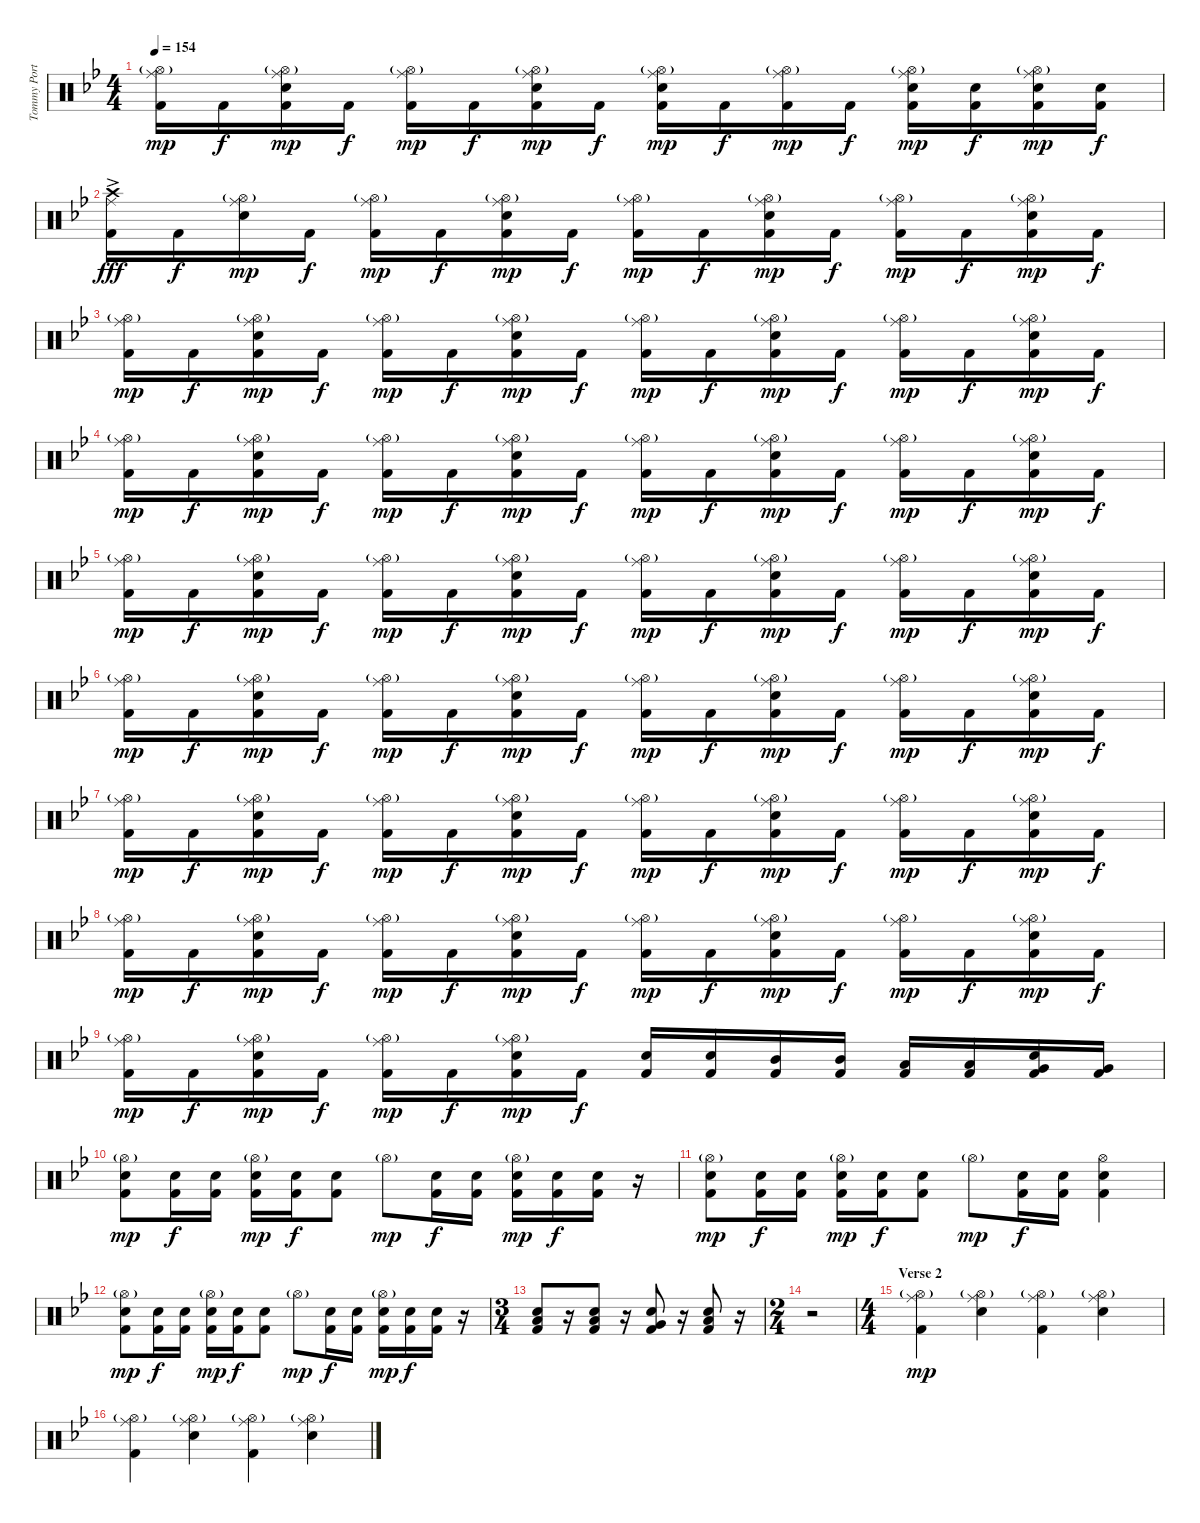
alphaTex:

\track ("Tommy Portimo" "Tommy Port") {instrument percussion}
\staff {score}
\articulation defaults
\ts (4 4)
\tempo 154
\clef neutral
\ks gminor
("Hi-Hat (open)"{g} "Ride (middle)" "Kick (hit) 2").16{dy mp} "Kick (hit) 2".16{dy f} ("Hi-Hat (open)"{g} "Ride (middle)" "Electric Snare (hit)" "Kick (hit) 2").16{dy mp} "Kick (hit) 2".16{dy f} ("Hi-Hat (open)"{g} "Ride (middle)" "Kick (hit) 2").16{dy mp} "Kick (hit) 2".16{dy f} ("Hi-Hat (open)"{g} "Ride (middle)" "Electric Snare (hit)" "Kick (hit) 2").16{dy mp} "Kick (hit) 2".16{dy f} ("Hi-Hat (open)"{g} "Ride (middle)" "Electric Snare (hit)" "Kick (hit) 2").16{dy mp} "Kick (hit) 2".16{dy f} ("Hi-Hat (open)"{g} "Ride (middle)" "Kick (hit) 2").16{dy mp} "Kick (hit) 2".16{dy f} ("Hi-Hat (open)"{g} "Ride (middle)" "Electric Snare (hit)" "Kick (hit) 2").16{dy mp} ("Electric Snare (hit)" "Kick (hit) 2").16{dy f} ("Hi-Hat (open)"{g} "Ride (middle)" "Electric Snare (hit)" "Kick (hit) 2").16{dy mp} ("Electric Snare (hit)" "Kick (hit) 2").16{dy f} |
("Crash high (hit)"{ac} "Ride (middle)" "Kick (hit) 2").16{dy fff} "Kick (hit) 2".16{dy f} ("Hi-Hat (open)"{g} "Ride (middle)" "Electric Snare (hit)").16{dy mp} "Kick (hit) 2".16{dy f} ("Hi-Hat (open)"{g} "Ride (middle)" "Kick (hit) 2").16{dy mp} "Kick (hit) 2".16{dy f} ("Hi-Hat (open)"{g} "Ride (middle)" "Electric Snare (hit)" "Kick (hit) 2").16{dy mp} "Kick (hit) 2".16{dy f} ("Hi-Hat (open)"{g} "Ride (middle)" "Kick (hit) 2").16{dy mp} "Kick (hit) 2".16{dy f} ("Hi-Hat (open)"{g} "Ride (middle)" "Electric Snare (hit)" "Kick (hit) 2").16{dy mp} "Kick (hit) 2".16{dy f} ("Hi-Hat (open)"{g} "Ride (middle)" "Kick (hit) 2").16{dy mp} "Kick (hit) 2".16{dy f} ("Hi-Hat (open)"{g} "Ride (middle)" "Electric Snare (hit)" "Kick (hit) 2").16{dy mp} "Kick (hit) 2".16{dy f} |
("Hi-Hat (open)"{g} "Ride (middle)" "Kick (hit) 2").16{dy mp} "Kick (hit) 2".16{dy f} ("Hi-Hat (open)"{g} "Ride (middle)" "Electric Snare (hit)" "Kick (hit) 2").16{dy mp} "Kick (hit) 2".16{dy f} ("Hi-Hat (open)"{g} "Ride (middle)" "Kick (hit) 2").16{dy mp} "Kick (hit) 2".16{dy f} ("Hi-Hat (open)"{g} "Ride (middle)" "Electric Snare (hit)" "Kick (hit) 2").16{dy mp} "Kick (hit) 2".16{dy f} ("Hi-Hat (open)"{g} "Ride (middle)" "Kick (hit) 2").16{dy mp} "Kick (hit) 2".16{dy f} ("Hi-Hat (open)"{g} "Ride (middle)" "Electric Snare (hit)" "Kick (hit) 2").16{dy mp} "Kick (hit) 2".16{dy f} ("Hi-Hat (open)"{g} "Ride (middle)" "Kick (hit) 2").16{dy mp} "Kick (hit) 2".16{dy f} ("Hi-Hat (open)"{g} "Ride (middle)" "Electric Snare (hit)" "Kick (hit) 2").16{dy mp} "Kick (hit) 2".16{dy f} |
("Hi-Hat (open)"{g} "Ride (middle)" "Kick (hit) 2").16{dy mp} "Kick (hit) 2".16{dy f} ("Hi-Hat (open)"{g} "Ride (middle)" "Electric Snare (hit)" "Kick (hit) 2").16{dy mp} "Kick (hit) 2".16{dy f} ("Hi-Hat (open)"{g} "Ride (middle)" "Kick (hit) 2").16{dy mp} "Kick (hit) 2".16{dy f} ("Hi-Hat (open)"{g} "Ride (middle)" "Electric Snare (hit)" "Kick (hit) 2").16{dy mp} "Kick (hit) 2".16{dy f} ("Hi-Hat (open)"{g} "Ride (middle)" "Kick (hit) 2").16{dy mp} "Kick (hit) 2".16{dy f} ("Hi-Hat (open)"{g} "Ride (middle)" "Electric Snare (hit)" "Kick (hit) 2").16{dy mp} "Kick (hit) 2".16{dy f} ("Hi-Hat (open)"{g} "Ride (middle)" "Kick (hit) 2").16{dy mp} "Kick (hit) 2".16{dy f} ("Hi-Hat (open)"{g} "Ride (middle)" "Electric Snare (hit)" "Kick (hit) 2").16{dy mp} "Kick (hit) 2".16{dy f} |
("Hi-Hat (open)"{g} "Ride (middle)" "Kick (hit) 2").16{dy mp} "Kick (hit) 2".16{dy f} ("Hi-Hat (open)"{g} "Ride (middle)" "Electric Snare (hit)" "Kick (hit) 2").16{dy mp} "Kick (hit) 2".16{dy f} ("Hi-Hat (open)"{g} "Ride (middle)" "Kick (hit) 2").16{dy mp} "Kick (hit) 2".16{dy f} ("Hi-Hat (open)"{g} "Ride (middle)" "Electric Snare (hit)" "Kick (hit) 2").16{dy mp} "Kick (hit) 2".16{dy f} ("Hi-Hat (open)"{g} "Ride (middle)" "Kick (hit) 2").16{dy mp} "Kick (hit) 2".16{dy f} ("Hi-Hat (open)"{g} "Ride (middle)" "Electric Snare (hit)" "Kick (hit) 2").16{dy mp} "Kick (hit) 2".16{dy f} ("Hi-Hat (open)"{g} "Ride (middle)" "Kick (hit) 2").16{dy mp} "Kick (hit) 2".16{dy f} ("Hi-Hat (open)"{g} "Ride (middle)" "Electric Snare (hit)" "Kick (hit) 2").16{dy mp} "Kick (hit) 2".16{dy f} |
("Hi-Hat (open)"{g} "Ride (middle)" "Kick (hit) 2").16{dy mp} "Kick (hit) 2".16{dy f} ("Hi-Hat (open)"{g} "Ride (middle)" "Electric Snare (hit)" "Kick (hit) 2").16{dy mp} "Kick (hit) 2".16{dy f} ("Hi-Hat (open)"{g} "Ride (middle)" "Kick (hit) 2").16{dy mp} "Kick (hit) 2".16{dy f} ("Hi-Hat (open)"{g} "Ride (middle)" "Electric Snare (hit)" "Kick (hit) 2").16{dy mp} "Kick (hit) 2".16{dy f} ("Hi-Hat (open)"{g} "Ride (middle)" "Kick (hit) 2").16{dy mp} "Kick (hit) 2".16{dy f} ("Hi-Hat (open)"{g} "Ride (middle)" "Electric Snare (hit)" "Kick (hit) 2").16{dy mp} "Kick (hit) 2".16{dy f} ("Hi-Hat (open)"{g} "Ride (middle)" "Kick (hit) 2").16{dy mp} "Kick (hit) 2".16{dy f} ("Hi-Hat (open)"{g} "Ride (middle)" "Electric Snare (hit)" "Kick (hit) 2").16{dy mp} "Kick (hit) 2".16{dy f} |
("Hi-Hat (open)"{g} "Ride (middle)" "Kick (hit) 2").16{dy mp} "Kick (hit) 2".16{dy f} ("Hi-Hat (open)"{g} "Ride (middle)" "Electric Snare (hit)" "Kick (hit) 2").16{dy mp} "Kick (hit) 2".16{dy f} ("Hi-Hat (open)"{g} "Ride (middle)" "Kick (hit) 2").16{dy mp} "Kick (hit) 2".16{dy f} ("Hi-Hat (open)"{g} "Ride (middle)" "Electric Snare (hit)" "Kick (hit) 2").16{dy mp} "Kick (hit) 2".16{dy f} ("Hi-Hat (open)"{g} "Ride (middle)" "Kick (hit) 2").16{dy mp} "Kick (hit) 2".16{dy f} ("Hi-Hat (open)"{g} "Ride (middle)" "Electric Snare (hit)" "Kick (hit) 2").16{dy mp} "Kick (hit) 2".16{dy f} ("Hi-Hat (open)"{g} "Ride (middle)" "Kick (hit) 2").16{dy mp} "Kick (hit) 2".16{dy f} ("Hi-Hat (open)"{g} "Ride (middle)" "Electric Snare (hit)" "Kick (hit) 2").16{dy mp} "Kick (hit) 2".16{dy f} |
("Hi-Hat (open)"{g} "Ride (middle)" "Kick (hit) 2").16{dy mp} "Kick (hit) 2".16{dy f} ("Hi-Hat (open)"{g} "Ride (middle)" "Electric Snare (hit)" "Kick (hit) 2").16{dy mp} "Kick (hit) 2".16{dy f} ("Hi-Hat (open)"{g} "Ride (middle)" "Kick (hit) 2").16{dy mp} "Kick (hit) 2".16{dy f} ("Hi-Hat (open)"{g} "Ride (middle)" "Electric Snare (hit)" "Kick (hit) 2").16{dy mp} "Kick (hit) 2".16{dy f} ("Hi-Hat (open)"{g} "Ride (middle)" "Kick (hit) 2").16{dy mp} "Kick (hit) 2".16{dy f} ("Hi-Hat (open)"{g} "Ride (middle)" "Electric Snare (hit)" "Kick (hit) 2").16{dy mp} "Kick (hit) 2".16{dy f} ("Hi-Hat (open)"{g} "Ride (middle)" "Kick (hit) 2").16{dy mp} "Kick (hit) 2".16{dy f} ("Hi-Hat (open)"{g} "Ride (middle)" "Electric Snare (hit)" "Kick (hit) 2").16{dy mp} "Kick (hit) 2".16{dy f} |
("Hi-Hat (open)"{g} "Ride (middle)" "Kick (hit) 2").16{dy mp} "Kick (hit) 2".16{dy f} ("Hi-Hat (open)"{g} "Ride (middle)" "Electric Snare (hit)" "Kick (hit) 2").16{dy mp} "Kick (hit) 2".16{dy f} ("Hi-Hat (open)"{g} "Ride (middle)" "Kick (hit) 2").16{dy mp} "Kick (hit) 2".16{dy f} ("Hi-Hat (open)"{g} "Ride (middle)" "Electric Snare (hit)" "Kick (hit) 2").16{dy mp} "Kick (hit) 2".16{dy f} ("Electric Snare (hit)" "Kick (hit) 2").16 ("Electric Snare (hit)" "Kick (hit) 2").16 ("Mid Tom (hit)" "Kick (hit) 2").16 ("Mid Tom (hit)" "Kick (hit) 2").16 ("Low Tom (hit)" "Kick (hit) 2").16 ("Low Tom (hit)" "Kick (hit) 2").16 ("Very Low Tom (hit)" "Electric Snare (hit)" "Kick (hit) 2").16 ("Very Low Tom (hit)" "Kick (hit) 2").16 |
("Hi-Hat (open)"{g} "Electric Snare (hit)" "Kick (hit) 2").8{dy mp} ("Electric Snare (hit)" "Kick (hit) 2").16{dy f} ("Electric Snare (hit)" "Kick (hit) 2").16 ("Hi-Hat (open)"{g} "Electric Snare (hit)" "Kick (hit) 2").16{dy mp} ("Electric Snare (hit)" "Kick (hit) 2").16{dy f} ("Electric Snare (hit)" "Kick (hit) 2").8 "Hi-Hat (open)"{g}.8{dy mp} ("Electric Snare (hit)" "Kick (hit) 2").16{dy f} ("Electric Snare (hit)" "Kick (hit) 2").16 ("Hi-Hat (open)"{g} "Electric Snare (hit)" "Kick (hit) 2").16{dy mp} ("Electric Snare (hit)" "Kick (hit) 2").16{dy f} ("Electric Snare (hit)" "Kick (hit) 2").16 r.16 |
("Hi-Hat (open)"{g} "Electric Snare (hit)" "Kick (hit) 2").8{dy mp} ("Electric Snare (hit)" "Kick (hit) 2").16{dy f} ("Electric Snare (hit)" "Kick (hit) 2").16 ("Hi-Hat (open)"{g} "Electric Snare (hit)" "Kick (hit) 2").16{dy mp} ("Electric Snare (hit)" "Kick (hit) 2").16{dy f} ("Electric Snare (hit)" "Kick (hit) 2").8 "Hi-Hat (open)"{g}.8{dy mp} ("Electric Snare (hit)" "Kick (hit) 2").16{dy f} ("Electric Snare (hit)" "Kick (hit) 2").16 ("Hi-Hat (open)" "Electric Snare (hit)" "Kick (hit) 2").4 |
("Hi-Hat (open)"{g} "Electric Snare (hit)" "Kick (hit) 2").8{dy mp} ("Electric Snare (hit)" "Kick (hit) 2").16{dy f} ("Electric Snare (hit)" "Kick (hit) 2").16 ("Hi-Hat (open)"{g} "Electric Snare (hit)" "Kick (hit) 2").16{dy mp} ("Electric Snare (hit)" "Kick (hit) 2").16{dy f} ("Electric Snare (hit)" "Kick (hit) 2").8 "Hi-Hat (open)"{g}.8{dy mp} ("Electric Snare (hit)" "Kick (hit) 2").16{dy f} ("Electric Snare (hit)" "Kick (hit) 2").16 ("Hi-Hat (open)"{g} "Electric Snare (hit)" "Kick (hit) 2").16{dy mp} ("Electric Snare (hit)" "Kick (hit) 2").16{dy f} ("Electric Snare (hit)" "Kick (hit) 2").16 r.16 |
\ts (3 4)
("Low Tom (hit)" "Electric Snare (hit)" "Kick (hit) 2").8 r.16 ("Low Tom (hit)" "Electric Snare (hit)" "Kick (hit) 2").8 r.16 ("Very Low Tom (hit)" "Electric Snare (hit)" "Kick (hit) 2").8 r.16 ("Low Floor Tom (hit)" "Electric Snare (hit)" "Kick (hit) 2").8 r.16 |
\ts (2 4)
r.2 |
\ts (4 4)
\section ("" "Verse 2")
("Hi-Hat (open)"{g} "Ride (middle)" "Kick (hit) 2").4{dy mp} ("Hi-Hat (open)"{g} "Ride (middle)" "Electric Snare (hit)").4 ("Hi-Hat (open)"{g} "Ride (middle)" "Kick (hit) 2").4 ("Hi-Hat (open)"{g} "Ride (middle)" "Electric Snare (hit)").4 |
("Hi-Hat (open)"{g} "Ride (middle)" "Kick (hit) 2").4 ("Hi-Hat (open)"{g} "Ride (middle)" "Electric Snare (hit)").4 ("Hi-Hat (open)"{g} "Ride (middle)" "Kick (hit) 2").4 ("Hi-Hat (open)"{g} "Ride (middle)" "Electric Snare (hit)").4
